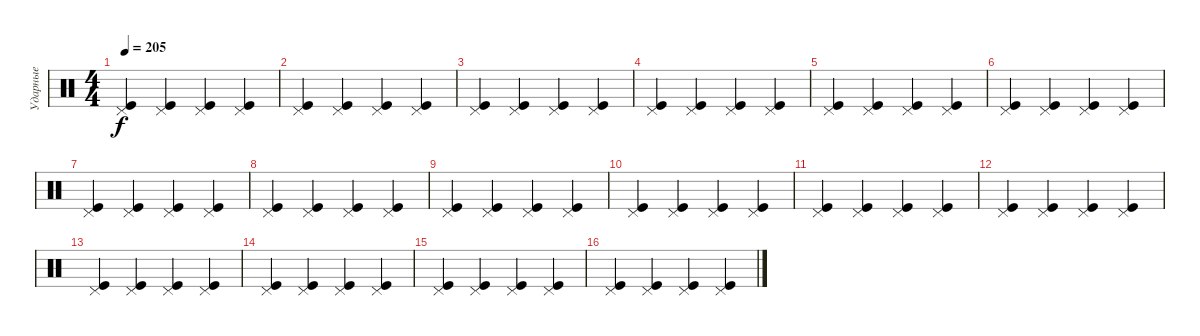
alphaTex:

\track ("Ударные" "Ударные") {instrument percussion}
\staff {score}
\articulation defaults
\ts (4 4)
\tempo 205
\clef neutral
\ks c
("Pedal Hi-Hat (hit)" "Kick (hit)").4{dy f} ("Pedal Hi-Hat (hit)" "Kick (hit)").4 ("Pedal Hi-Hat (hit)" "Kick (hit)").4 ("Pedal Hi-Hat (hit)" "Kick (hit)").4 |
("Pedal Hi-Hat (hit)" "Kick (hit)").4 ("Pedal Hi-Hat (hit)" "Kick (hit)").4 ("Pedal Hi-Hat (hit)" "Kick (hit)").4 ("Pedal Hi-Hat (hit)" "Kick (hit)").4 |
("Pedal Hi-Hat (hit)" "Kick (hit)").4 ("Pedal Hi-Hat (hit)" "Kick (hit)").4 ("Pedal Hi-Hat (hit)" "Kick (hit)").4 ("Pedal Hi-Hat (hit)" "Kick (hit)").4 |
("Pedal Hi-Hat (hit)" "Kick (hit)").4 ("Pedal Hi-Hat (hit)" "Kick (hit)").4 ("Pedal Hi-Hat (hit)" "Kick (hit)").4 ("Pedal Hi-Hat (hit)" "Kick (hit)").4 |
("Pedal Hi-Hat (hit)" "Kick (hit)").4 ("Pedal Hi-Hat (hit)" "Kick (hit)").4 ("Pedal Hi-Hat (hit)" "Kick (hit)").4 ("Pedal Hi-Hat (hit)" "Kick (hit)").4 |
("Pedal Hi-Hat (hit)" "Kick (hit)").4 ("Pedal Hi-Hat (hit)" "Kick (hit)").4 ("Pedal Hi-Hat (hit)" "Kick (hit)").4 ("Pedal Hi-Hat (hit)" "Kick (hit)").4 |
("Pedal Hi-Hat (hit)" "Kick (hit)").4 ("Pedal Hi-Hat (hit)" "Kick (hit)").4 ("Pedal Hi-Hat (hit)" "Kick (hit)").4 ("Pedal Hi-Hat (hit)" "Kick (hit)").4 |
("Pedal Hi-Hat (hit)" "Kick (hit)").4 ("Pedal Hi-Hat (hit)" "Kick (hit)").4 ("Pedal Hi-Hat (hit)" "Kick (hit)").4 ("Pedal Hi-Hat (hit)" "Kick (hit)").4 |
("Pedal Hi-Hat (hit)" "Kick (hit)").4 ("Pedal Hi-Hat (hit)" "Kick (hit)").4 ("Pedal Hi-Hat (hit)" "Kick (hit)").4 ("Pedal Hi-Hat (hit)" "Kick (hit)").4 |
("Pedal Hi-Hat (hit)" "Kick (hit)").4 ("Pedal Hi-Hat (hit)" "Kick (hit)").4 ("Pedal Hi-Hat (hit)" "Kick (hit)").4 ("Pedal Hi-Hat (hit)" "Kick (hit)").4 |
("Pedal Hi-Hat (hit)" "Kick (hit)").4 ("Pedal Hi-Hat (hit)" "Kick (hit)").4 ("Pedal Hi-Hat (hit)" "Kick (hit)").4 ("Pedal Hi-Hat (hit)" "Kick (hit)").4 |
("Pedal Hi-Hat (hit)" "Kick (hit)").4 ("Pedal Hi-Hat (hit)" "Kick (hit)").4 ("Pedal Hi-Hat (hit)" "Kick (hit)").4 ("Pedal Hi-Hat (hit)" "Kick (hit)").4 |
("Pedal Hi-Hat (hit)" "Kick (hit)").4 ("Pedal Hi-Hat (hit)" "Kick (hit)").4 ("Pedal Hi-Hat (hit)" "Kick (hit)").4 ("Pedal Hi-Hat (hit)" "Kick (hit)").4 |
("Pedal Hi-Hat (hit)" "Kick (hit)").4 ("Pedal Hi-Hat (hit)" "Kick (hit)").4 ("Pedal Hi-Hat (hit)" "Kick (hit)").4 ("Pedal Hi-Hat (hit)" "Kick (hit)").4 |
("Pedal Hi-Hat (hit)" "Kick (hit)").4 ("Pedal Hi-Hat (hit)" "Kick (hit)").4 ("Pedal Hi-Hat (hit)" "Kick (hit)").4 ("Pedal Hi-Hat (hit)" "Kick (hit)").4 |
("Pedal Hi-Hat (hit)" "Kick (hit)").4 ("Pedal Hi-Hat (hit)" "Kick (hit)").4 ("Pedal Hi-Hat (hit)" "Kick (hit)").4 ("Pedal Hi-Hat (hit)" "Kick (hit)").4
